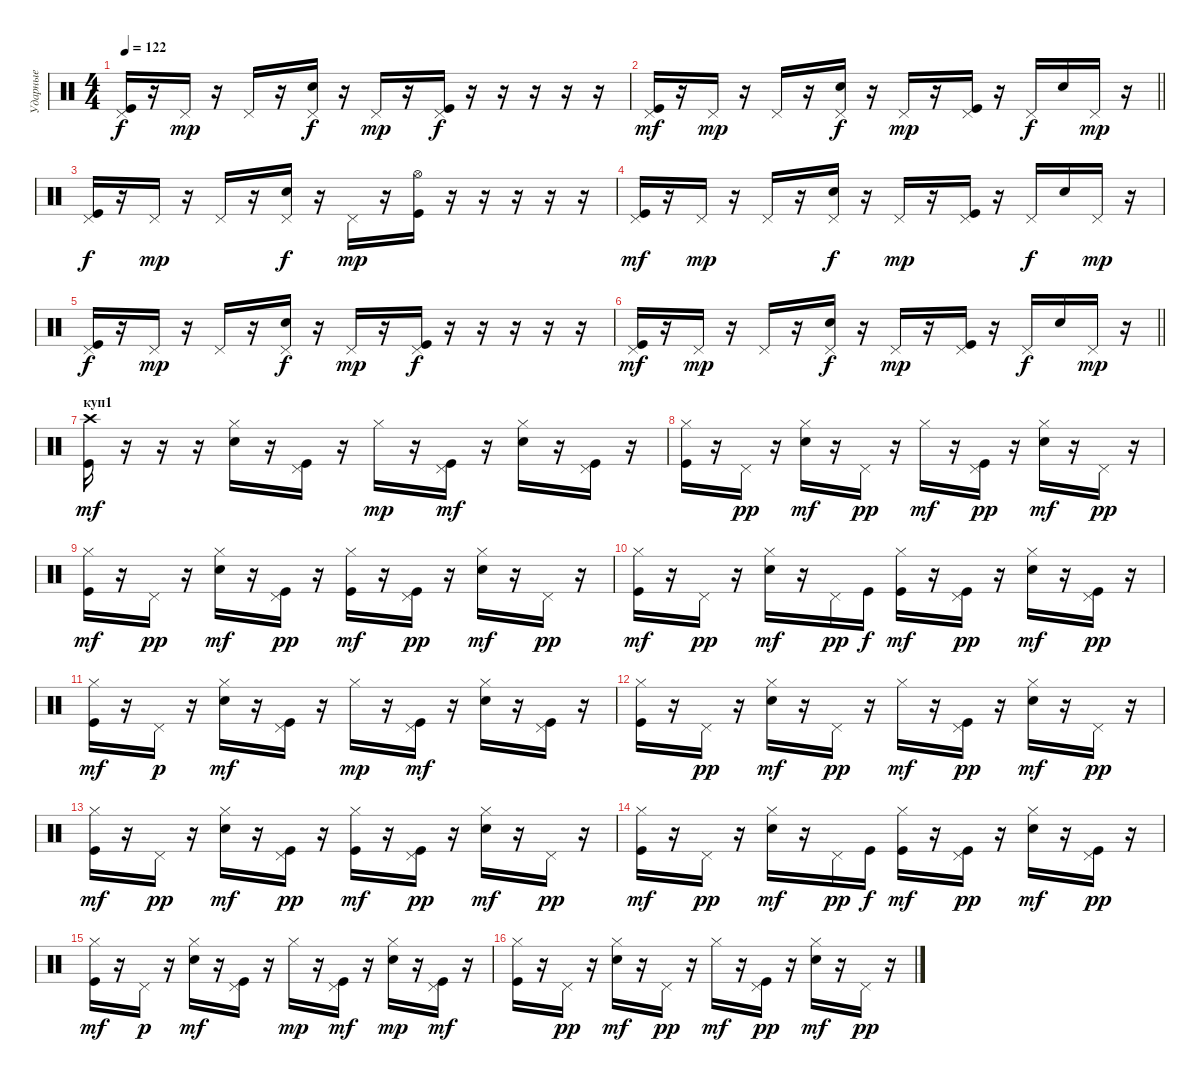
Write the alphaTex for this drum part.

\track ("Ударные" "Ударные") {instrument percussion}
\staff {score}
\articulation defaults
\ts (4 4)
\tempo 122
\clef neutral
\ks c
("Pedal Hi-Hat (hit)" "Kick (hit)").16{dy f} r.16 "Pedal Hi-Hat (hit)".16{dy mp} r.16 "Pedal Hi-Hat (hit)".16 r.16 ("Pedal Hi-Hat (hit)" "Electric Snare (hit)").16{dy f} r.16 "Pedal Hi-Hat (hit)".16{dy mp} r.16 ("Pedal Hi-Hat (hit)" "Kick (hit)").16{dy f} r.16 r.16 r.16 r.16 r.16 |
\barLineRight lightlight
("Pedal Hi-Hat (hit)" "Kick (hit)").16{dy mf} r.16 "Pedal Hi-Hat (hit)".16{dy mp} r.16 "Pedal Hi-Hat (hit)".16 r.16 ("Pedal Hi-Hat (hit)" "Electric Snare (hit)").16{dy f} r.16 "Pedal Hi-Hat (hit)".16{dy mp} r.16 ("Pedal Hi-Hat (hit)" "Kick (hit)").16 r.16 "Pedal Hi-Hat (hit)".16{dy f} "Electric Snare (hit)".16 "Pedal Hi-Hat (hit)".16{dy mp} r.16 |
("Pedal Hi-Hat (hit)" "Kick (hit)").16{dy f} r.16 "Pedal Hi-Hat (hit)".16{dy mp} r.16 "Pedal Hi-Hat (hit)".16 r.16 ("Pedal Hi-Hat (hit)" "Electric Snare (hit)").16{dy f} r.16 "Pedal Hi-Hat (hit)".16{dy mp} r.16 ("Hi-Hat (open)" "Kick (hit)").16 r.16{volume 0} r.16 r.16 r.16 r.16 |
("Pedal Hi-Hat (hit)" "Kick (hit)").16{dy mf volume 16} r.16 "Pedal Hi-Hat (hit)".16{dy mp} r.16 "Pedal Hi-Hat (hit)".16 r.16 ("Pedal Hi-Hat (hit)" "Electric Snare (hit)").16{dy f} r.16 "Pedal Hi-Hat (hit)".16{dy mp} r.16 ("Pedal Hi-Hat (hit)" "Kick (hit)").16 r.16 "Pedal Hi-Hat (hit)".16{dy f} "Electric Snare (hit)".16 "Pedal Hi-Hat (hit)".16{dy mp} r.16 |
("Pedal Hi-Hat (hit)" "Kick (hit)").16{dy f} r.16 "Pedal Hi-Hat (hit)".16{dy mp} r.16 "Pedal Hi-Hat (hit)".16 r.16 ("Pedal Hi-Hat (hit)" "Electric Snare (hit)").16{dy f} r.16 "Pedal Hi-Hat (hit)".16{dy mp} r.16 ("Pedal Hi-Hat (hit)" "Kick (hit)").16{dy f} r.16 r.16 r.16 r.16 r.16 |
\barLineRight lightlight
("Pedal Hi-Hat (hit)" "Kick (hit)").16{dy mf} r.16 "Pedal Hi-Hat (hit)".16{dy mp} r.16 "Pedal Hi-Hat (hit)".16 r.16 ("Pedal Hi-Hat (hit)" "Electric Snare (hit)").16{dy f} r.16 "Pedal Hi-Hat (hit)".16{dy mp} r.16 ("Pedal Hi-Hat (hit)" "Kick (hit)").16 r.16 "Pedal Hi-Hat (hit)".16{dy f} "Electric Snare (hit)".16 "Pedal Hi-Hat (hit)".16{dy mp} r.16 |
\section ("" "куп1")
("Crash high (hit)" "Kick (hit)").16{dy mf} r.16 r.16 r.16 ("Hi-Hat (closed)" "Electric Snare (hit)").16 r.16 ("Pedal Hi-Hat (hit)" "Kick (hit)").16 r.16 "Hi-Hat (closed)".16{dy mp} r.16 ("Pedal Hi-Hat (hit)" "Kick (hit)").16{dy mf} r.16 ("Hi-Hat (closed)" "Electric Snare (hit)").16 r.16 ("Pedal Hi-Hat (hit)" "Kick (hit)").16 r.16 |
("Hi-Hat (closed)" "Kick (hit)").16 r.16 "Pedal Hi-Hat (hit)".16{dy pp} r.16 ("Hi-Hat (closed)" "Electric Snare (hit)").16{dy mf} r.16 "Pedal Hi-Hat (hit)".16{dy pp} r.16 "Hi-Hat (closed)".16{dy mf} r.16 ("Pedal Hi-Hat (hit)" "Kick (hit)").16{dy pp} r.16 ("Hi-Hat (closed)" "Electric Snare (hit)").16{dy mf} r.16 "Pedal Hi-Hat (hit)".16{dy pp} r.16 |
("Hi-Hat (closed)" "Kick (hit)").16{dy mf} r.16 "Pedal Hi-Hat (hit)".16{dy pp} r.16 ("Hi-Hat (closed)" "Electric Snare (hit)").16{dy mf} r.16 ("Pedal Hi-Hat (hit)" "Kick (hit)").16{dy pp} r.16 ("Hi-Hat (closed)" "Kick (hit)").16{dy mf} r.16 ("Pedal Hi-Hat (hit)" "Kick (hit)").16{dy pp} r.16 ("Hi-Hat (closed)" "Electric Snare (hit)").16{dy mf} r.16 "Pedal Hi-Hat (hit)".16{dy pp} r.16 |
("Hi-Hat (closed)" "Kick (hit)").16{dy mf} r.16 "Pedal Hi-Hat (hit)".16{dy pp} r.16 ("Hi-Hat (closed)" "Electric Snare (hit)").16{dy mf} r.16 "Pedal Hi-Hat (hit)".16{dy pp} "Kick (hit)".16{dy f} ("Hi-Hat (closed)" "Kick (hit)").16{dy mf} r.16 ("Pedal Hi-Hat (hit)" "Kick (hit)").16{dy pp} r.16 ("Hi-Hat (closed)" "Electric Snare (hit)").16{dy mf} r.16 ("Pedal Hi-Hat (hit)" "Kick (hit)").16{dy pp} r.16 |
("Hi-Hat (closed)" "Kick (hit)").16{dy mf} r.16 "Pedal Hi-Hat (hit)".16{dy p} r.16 ("Hi-Hat (closed)" "Electric Snare (hit)").16{dy mf} r.16 ("Pedal Hi-Hat (hit)" "Kick (hit)").16 r.16 "Hi-Hat (closed)".16{dy mp} r.16 ("Pedal Hi-Hat (hit)" "Kick (hit)").16{dy mf} r.16 ("Hi-Hat (closed)" "Electric Snare (hit)").16 r.16 ("Pedal Hi-Hat (hit)" "Kick (hit)").16 r.16 |
("Hi-Hat (closed)" "Kick (hit)").16 r.16 "Pedal Hi-Hat (hit)".16{dy pp} r.16 ("Hi-Hat (closed)" "Electric Snare (hit)").16{dy mf} r.16 "Pedal Hi-Hat (hit)".16{dy pp} r.16 "Hi-Hat (closed)".16{dy mf} r.16 ("Pedal Hi-Hat (hit)" "Kick (hit)").16{dy pp} r.16 ("Hi-Hat (closed)" "Electric Snare (hit)").16{dy mf} r.16 "Pedal Hi-Hat (hit)".16{dy pp} r.16 |
("Hi-Hat (closed)" "Kick (hit)").16{dy mf} r.16 "Pedal Hi-Hat (hit)".16{dy pp} r.16 ("Hi-Hat (closed)" "Electric Snare (hit)").16{dy mf} r.16 ("Pedal Hi-Hat (hit)" "Kick (hit)").16{dy pp} r.16 ("Hi-Hat (closed)" "Kick (hit)").16{dy mf} r.16 ("Pedal Hi-Hat (hit)" "Kick (hit)").16{dy pp} r.16 ("Hi-Hat (closed)" "Electric Snare (hit)").16{dy mf} r.16 "Pedal Hi-Hat (hit)".16{dy pp} r.16 |
("Hi-Hat (closed)" "Kick (hit)").16{dy mf} r.16 "Pedal Hi-Hat (hit)".16{dy pp} r.16 ("Hi-Hat (closed)" "Electric Snare (hit)").16{dy mf} r.16 "Pedal Hi-Hat (hit)".16{dy pp} "Kick (hit)".16{dy f} ("Hi-Hat (closed)" "Kick (hit)").16{dy mf} r.16 ("Pedal Hi-Hat (hit)" "Kick (hit)").16{dy pp} r.16 ("Hi-Hat (closed)" "Electric Snare (hit)").16{dy mf} r.16 ("Pedal Hi-Hat (hit)" "Kick (hit)").16{dy pp} r.16 |
("Hi-Hat (closed)" "Kick (hit)").16{dy mf} r.16 "Pedal Hi-Hat (hit)".16{dy p} r.16 ("Hi-Hat (closed)" "Electric Snare (hit)").16{dy mf} r.16 ("Pedal Hi-Hat (hit)" "Kick (hit)").16 r.16 "Hi-Hat (closed)".16{dy mp} r.16 ("Pedal Hi-Hat (hit)" "Kick (hit)").16{dy mf} r.16 ("Hi-Hat (closed)" "Electric Snare (hit)").16{dy mp} r.16 ("Pedal Hi-Hat (hit)" "Kick (hit)").16{dy mf} r.16 |
("Hi-Hat (closed)" "Kick (hit)").16 r.16 "Pedal Hi-Hat (hit)".16{dy pp} r.16 ("Hi-Hat (closed)" "Electric Snare (hit)").16{dy mf} r.16 "Pedal Hi-Hat (hit)".16{dy pp} r.16 "Hi-Hat (closed)".16{dy mf} r.16 ("Pedal Hi-Hat (hit)" "Kick (hit)").16{dy pp} r.16 ("Hi-Hat (closed)" "Electric Snare (hit)").16{dy mf} r.16 "Pedal Hi-Hat (hit)".16{dy pp} r.16
